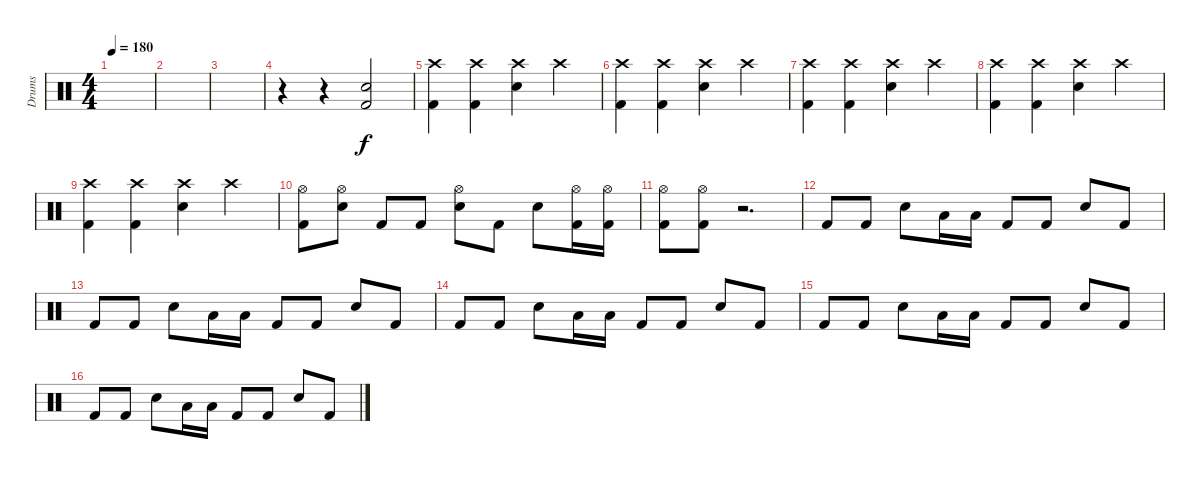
\track ("Drums" "Drums") {instrument percussion}
\staff {score}
\articulation defaults
\ts (4 4)
\tempo 180
\clef neutral
\ks c
|
|
|
r.4 r.4 ("Snare (hit) 2" "Kick (hit) 2").2 |
("Kick (hit) 2" "Crash high (hit)").4 ("Kick (hit) 2" "Crash high (hit)").4 ("Snare (hit) 2" "Crash high (hit)").4 "Crash high (hit)".4 |
("Kick (hit) 2" "Crash high (hit)").4 ("Kick (hit) 2" "Crash high (hit)").4 ("Snare (hit) 2" "Crash high (hit)").4 "Crash high (hit)".4 |
("Kick (hit) 2" "Crash high (hit)").4 ("Kick (hit) 2" "Crash high (hit)").4 ("Snare (hit) 2" "Crash high (hit)").4 "Crash high (hit)".4 |
("Kick (hit) 2" "Crash high (hit)").4 ("Kick (hit) 2" "Crash high (hit)").4 ("Snare (hit) 2" "Crash high (hit)").4 "Crash high (hit)".4 |
("Kick (hit) 2" "Crash high (hit)").4 ("Kick (hit) 2" "Crash high (hit)").4 ("Snare (hit) 2" "Crash high (hit)").4 "Crash high (hit)".4 |
("Hi-Hat (open)" "Kick (hit) 2").8 ("Hi-Hat (open)" "Snare (hit) 2").8 "Kick (hit) 2".8 "Kick (hit) 2".8 ("Hi-Hat (open)" "Snare (hit) 2").8 "Kick (hit) 2".8 "Snare (hit) 2".8 ("Kick (hit) 2" "Hi-Hat (open)").16 ("Kick (hit) 2" "Hi-Hat (open)").16 |
("Kick (hit) 2" "Hi-Hat (open)").8 ("Kick (hit) 2" "Hi-Hat (open)").8 r.2{d} |
"Kick (hit) 2".8 "Kick (hit) 2".8 "Snare (hit) 2".8 "Low Tom (hit)".16 "Low Floor Tom (hit)".16 "Kick (hit) 2".8 "Kick (hit) 2".8 "Snare (hit) 2".8 "Kick (hit) 2".8 |
"Kick (hit) 2".8 "Kick (hit) 2".8 "Snare (hit) 2".8 "Low Tom (hit)".16 "Low Floor Tom (hit)".16 "Kick (hit) 2".8 "Kick (hit) 2".8 "Snare (hit) 2".8 "Kick (hit) 2".8 |
"Kick (hit) 2".8 "Kick (hit) 2".8 "Snare (hit) 2".8 "Low Tom (hit)".16 "Low Floor Tom (hit)".16 "Kick (hit) 2".8 "Kick (hit) 2".8 "Snare (hit) 2".8 "Kick (hit) 2".8 |
"Kick (hit) 2".8 "Kick (hit) 2".8 "Snare (hit) 2".8 "Low Tom (hit)".16 "Low Floor Tom (hit)".16 "Kick (hit) 2".8 "Kick (hit) 2".8 "Snare (hit) 2".8 "Kick (hit) 2".8 |
"Kick (hit) 2".8 "Kick (hit) 2".8 "Snare (hit) 2".8 "Low Tom (hit)".16 "Low Floor Tom (hit)".16 "Kick (hit) 2".8 "Kick (hit) 2".8 "Snare (hit) 2".8 "Kick (hit) 2".8
